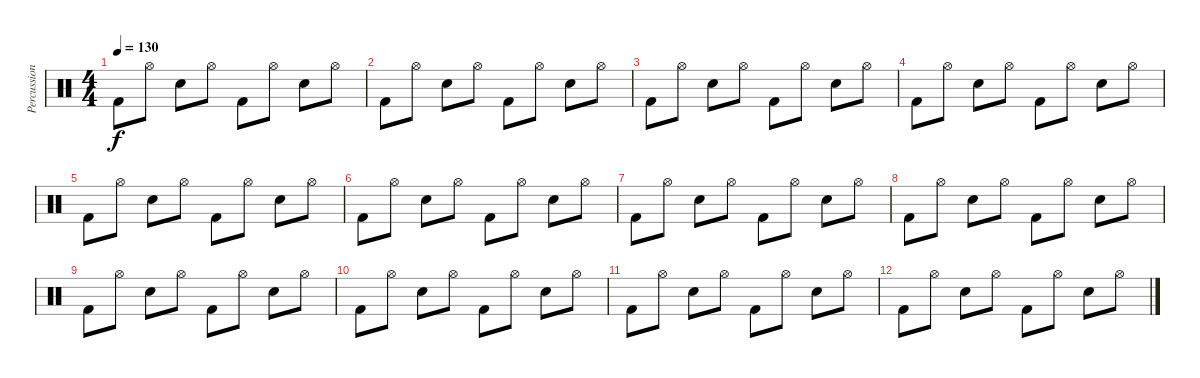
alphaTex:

\track ("Percussion" "Percussion") {instrument percussion}
\staff {score}
\articulation defaults
\ts (4 4)
\tempo 130
\clef neutral
\ks c "Kick (hit) 2".8{dy f} "Hi-Hat (open)".8 "Electric Snare (hit)".8 "Hi-Hat (open)".8 "Kick (hit) 2".8 "Hi-Hat (open)".8 "Electric Snare (hit)".8 "Hi-Hat (open)".8
|
"Kick (hit) 2".8 "Hi-Hat (open)".8 "Electric Snare (hit)".8 "Hi-Hat (open)".8 "Kick (hit) 2".8 "Hi-Hat (open)".8 "Electric Snare (hit)".8 "Hi-Hat (open)".8 |
"Kick (hit) 2".8 "Hi-Hat (open)".8 "Electric Snare (hit)".8 "Hi-Hat (open)".8 "Kick (hit) 2".8 "Hi-Hat (open)".8 "Electric Snare (hit)".8 "Hi-Hat (open)".8 |
"Kick (hit) 2".8 "Hi-Hat (open)".8 "Electric Snare (hit)".8 "Hi-Hat (open)".8 "Kick (hit) 2".8 "Hi-Hat (open)".8 "Electric Snare (hit)".8 "Hi-Hat (open)".8 |
"Kick (hit) 2".8 "Hi-Hat (open)".8 "Electric Snare (hit)".8 "Hi-Hat (open)".8 "Kick (hit) 2".8 "Hi-Hat (open)".8 "Electric Snare (hit)".8 "Hi-Hat (open)".8 |
"Kick (hit) 2".8 "Hi-Hat (open)".8 "Electric Snare (hit)".8 "Hi-Hat (open)".8 "Kick (hit) 2".8 "Hi-Hat (open)".8 "Electric Snare (hit)".8 "Hi-Hat (open)".8 |
"Kick (hit) 2".8 "Hi-Hat (open)".8 "Electric Snare (hit)".8 "Hi-Hat (open)".8 "Kick (hit) 2".8 "Hi-Hat (open)".8 "Electric Snare (hit)".8 "Hi-Hat (open)".8 |
"Kick (hit) 2".8 "Hi-Hat (open)".8 "Electric Snare (hit)".8 "Hi-Hat (open)".8 "Kick (hit) 2".8 "Hi-Hat (open)".8 "Electric Snare (hit)".8 "Hi-Hat (open)".8 |
"Kick (hit) 2".8 "Hi-Hat (open)".8 "Electric Snare (hit)".8 "Hi-Hat (open)".8 "Kick (hit) 2".8 "Hi-Hat (open)".8 "Electric Snare (hit)".8 "Hi-Hat (open)".8 |
"Kick (hit) 2".8 "Hi-Hat (open)".8 "Electric Snare (hit)".8 "Hi-Hat (open)".8 "Kick (hit) 2".8 "Hi-Hat (open)".8 "Electric Snare (hit)".8 "Hi-Hat (open)".8 |
"Kick (hit) 2".8 "Hi-Hat (open)".8 "Electric Snare (hit)".8 "Hi-Hat (open)".8 "Kick (hit) 2".8 "Hi-Hat (open)".8 "Electric Snare (hit)".8 "Hi-Hat (open)".8 |
"Kick (hit) 2".8 "Hi-Hat (open)".8 "Electric Snare (hit)".8 "Hi-Hat (open)".8 "Kick (hit) 2".8 "Hi-Hat (open)".8 "Electric Snare (hit)".8 "Hi-Hat (open)".8
